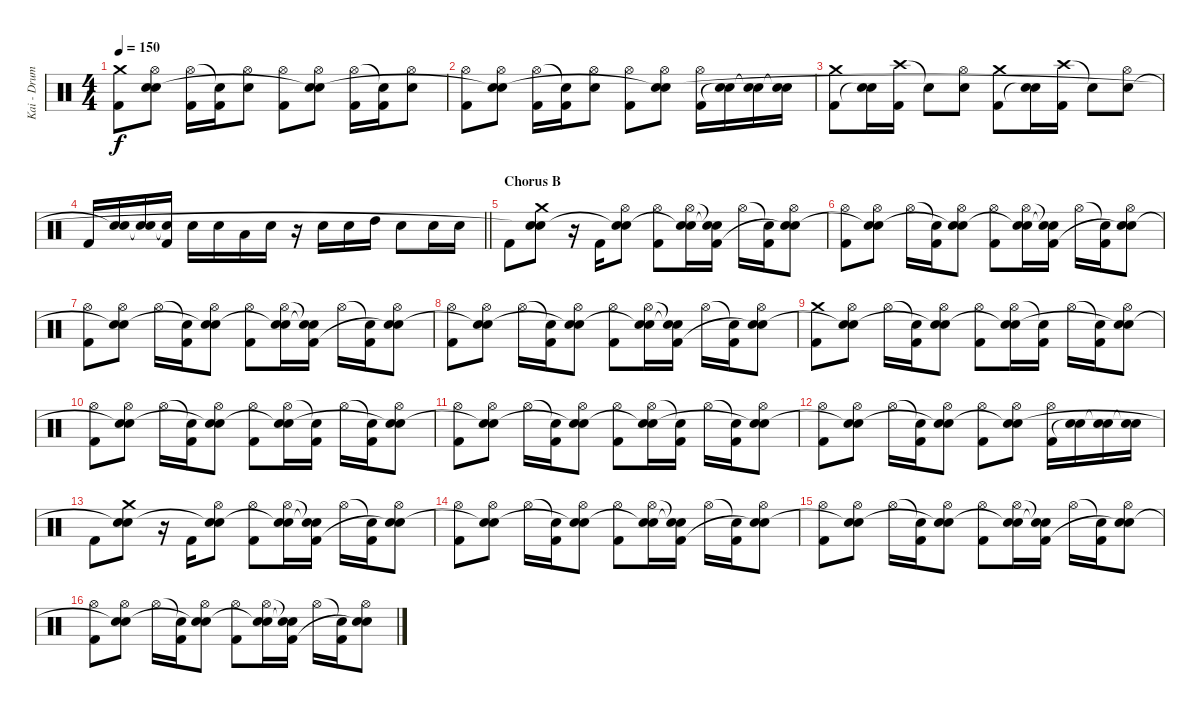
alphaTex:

\track ("Kai - Drums" "Kai - Drum") {instrument percussion}
\staff {score}
\articulation defaults
\ts (4 4)
\tempo 150
\clef neutral
\ks c
("Crash medium (hit)" "Kick (hit) 2").8{dy f} ("Hi-Hat (open)" "Snare (hit) 2" "Snare (hit)"{t}).8 ("Hi-Hat (open)" "Kick (hit) 2").16 ("Snare (hit)"{t} "Kick (hit) 2").16 ("Hi-Hat (open)" "Snare (hit) 2").8 ("Hi-Hat (open)" "Kick (hit) 2").8 ("Hi-Hat (open)" "Snare (hit) 2" "Snare (hit)"{t}).8 ("Hi-Hat (open)" "Kick (hit) 2").16 ("Snare (hit)"{t} "Kick (hit) 2").16 ("Hi-Hat (open)" "Snare (hit) 2").8 |
("Hi-Hat (open)" "Kick (hit) 2").8 ("Hi-Hat (open)" "Snare (hit) 2" "Snare (hit)"{t}).8 ("Hi-Hat (open)" "Kick (hit) 2").16 ("Snare (hit)"{t} "Kick (hit) 2").16 ("Hi-Hat (open)" "Snare (hit) 2").8 ("Hi-Hat (open)" "Kick (hit) 2").8 ("Hi-Hat (open)" "Snare (hit) 2" "Snare (hit)"{t}).8 ("Hi-Hat (open)" "Kick (hit) 2").16 ("Snare (hit) 2" "Snare (hit)"{t}).16 ("Snare (hit) 2" "Snare (hit)"{t}).16 ("Snare (hit) 2" "Snare (hit)"{t}).16 |
("Crash medium (hit)" "Kick (hit) 2").8 ("Snare (hit) 2" "Snare (hit)"{t}).16 ("Crash high (hit)" "Kick (hit) 2").16 "Snare (hit)"{t}.8 ("Hi-Hat (open)" "Snare (hit) 2").8 ("Crash medium (hit)" "Kick (hit) 2").8 ("Snare (hit) 2" "Snare (hit)"{t}).16 ("Crash high (hit)" "Kick (hit) 2").16 "Snare (hit)"{t}.8 ("Hi-Hat (open)" "Snare (hit) 2").8 |
\barLineRight lightlight "Kick (hit) 2".16
("Snare (hit) 2" "Snare (hit)"{t}).16 ("Snare (hit) 2" "Snare (hit)"{t}).16 ("Snare (hit)"{t} "Kick (hit) 2").16 "Snare (hit) 2".16 "Snare (hit) 2".16 "Low Tom (hit)".16 "Snare (hit) 2".16 r.16 "Snare (hit) 2".16 "Snare (hit) 2".16 "High Tom (hit)".16 "Snare (hit) 2".8 "Snare (hit) 2".16 "Snare (hit) 2".16 |
\section ("" "Chorus B")
"Kick (hit) 2".8 ("Crash medium (hit)" "Snare (hit) 2" "Snare (hit)"{t}).8 r.16 "Kick (hit) 2".16 ("Hi-Hat (open)" "Snare (hit) 2" "Snare (hit)"{t}).8 ("Hi-Hat (open)" "Kick (hit) 2").8 ("Hi-Hat (open)" "Snare (hit) 2" "Snare (hit)"{t}).16 ("Snare (hit)"{t} "Snare (hit)"{t} "Kick (hit) 2").16 "Hi-Hat (open)".16 ("Snare (hit)"{t} "Kick (hit) 2").16 ("Hi-Hat (open)" "Snare (hit) 2" "Snare (hit)"{t}).8 |
("Hi-Hat (open)" "Kick (hit) 2").8 ("Hi-Hat (open)" "Snare (hit) 2" "Snare (hit)"{t}).8 "Hi-Hat (open)".16 ("Snare (hit)"{t} "Kick (hit) 2").16 ("Hi-Hat (open)" "Snare (hit) 2" "Snare (hit)"{t}).8 ("Hi-Hat (open)" "Kick (hit) 2").8 ("Hi-Hat (open)" "Snare (hit) 2" "Snare (hit)"{t}).16 ("Snare (hit)"{t} "Snare (hit)"{t} "Kick (hit) 2").16 "Hi-Hat (open)".16 ("Snare (hit)"{t} "Kick (hit) 2").16 ("Hi-Hat (open)" "Snare (hit) 2" "Snare (hit)"{t}).8 |
("Hi-Hat (open)" "Kick (hit) 2").8 ("Hi-Hat (open)" "Snare (hit) 2" "Snare (hit)"{t}).8 "Hi-Hat (open)".16 ("Snare (hit)"{t} "Kick (hit) 2").16 ("Hi-Hat (open)" "Snare (hit) 2" "Snare (hit)"{t}).8 ("Hi-Hat (open)" "Kick (hit) 2").8 ("Hi-Hat (open)" "Snare (hit) 2" "Snare (hit)"{t}).16 ("Snare (hit)"{t} "Snare (hit)"{t} "Kick (hit) 2").16 "Hi-Hat (open)".16 ("Snare (hit)"{t} "Kick (hit) 2").16 ("Hi-Hat (open)" "Snare (hit) 2" "Snare (hit)"{t}).8 |
("Hi-Hat (open)" "Kick (hit) 2").8 ("Hi-Hat (open)" "Snare (hit) 2" "Snare (hit)"{t}).8 "Hi-Hat (open)".16 ("Snare (hit)"{t} "Kick (hit) 2").16 ("Hi-Hat (open)" "Snare (hit) 2" "Snare (hit)"{t}).8 ("Hi-Hat (open)" "Kick (hit) 2").8 ("Hi-Hat (open)" "Snare (hit) 2" "Snare (hit)"{t}).16 ("Snare (hit)"{t} "Snare (hit)"{t} "Kick (hit) 2").16 "Hi-Hat (open)".16 ("Snare (hit)"{t} "Kick (hit) 2").16 ("Hi-Hat (open)" "Snare (hit) 2" "Snare (hit)"{t}).8 |
("Crash medium (hit)" "Kick (hit) 2").8 ("Hi-Hat (open)" "Snare (hit) 2" "Snare (hit)"{t}).8 "Hi-Hat (open)".16 ("Snare (hit)"{t} "Kick (hit) 2").16 ("Hi-Hat (open)" "Snare (hit) 2" "Snare (hit)"{t}).8 ("Hi-Hat (open)" "Kick (hit) 2").8 ("Hi-Hat (open)" "Snare (hit) 2" "Snare (hit)"{t}).16 ("Snare (hit)"{t} "Kick (hit) 2").16 "Hi-Hat (open)".16 ("Snare (hit)"{t} "Kick (hit) 2").16 ("Hi-Hat (open)" "Snare (hit) 2" "Snare (hit)"{t}).8 |
("Hi-Hat (open)" "Kick (hit) 2").8 ("Hi-Hat (open)" "Snare (hit) 2" "Snare (hit)"{t}).8 "Hi-Hat (open)".16 ("Snare (hit)"{t} "Kick (hit) 2").16 ("Hi-Hat (open)" "Snare (hit) 2" "Snare (hit)"{t}).8 ("Hi-Hat (open)" "Kick (hit) 2").8 ("Hi-Hat (open)" "Snare (hit) 2" "Snare (hit)"{t}).16 ("Snare (hit)"{t} "Kick (hit) 2").16 "Hi-Hat (open)".16 ("Snare (hit)"{t} "Kick (hit) 2").16 ("Hi-Hat (open)" "Snare (hit) 2" "Snare (hit)"{t}).8 |
("Hi-Hat (open)" "Kick (hit) 2").8 ("Hi-Hat (open)" "Snare (hit) 2" "Snare (hit)"{t}).8 "Hi-Hat (open)".16 ("Snare (hit)"{t} "Kick (hit) 2").16 ("Hi-Hat (open)" "Snare (hit) 2" "Snare (hit)"{t}).8 ("Hi-Hat (open)" "Kick (hit) 2").8 ("Hi-Hat (open)" "Snare (hit) 2" "Snare (hit)"{t}).16 ("Snare (hit)"{t} "Kick (hit) 2").16 "Hi-Hat (open)".16 ("Snare (hit)"{t} "Kick (hit) 2").16 ("Hi-Hat (open)" "Snare (hit) 2" "Snare (hit)"{t}).8 |
("Hi-Hat (open)" "Kick (hit) 2").8 ("Hi-Hat (open)" "Snare (hit) 2" "Snare (hit)"{t}).8 "Hi-Hat (open)".16 ("Snare (hit)"{t} "Kick (hit) 2").16 ("Hi-Hat (open)" "Snare (hit) 2" "Snare (hit)"{t}).8 ("Hi-Hat (open)" "Kick (hit) 2").8 ("Hi-Hat (open)" "Snare (hit) 2" "Snare (hit)"{t}).8 ("Hi-Hat (open)" "Kick (hit) 2").16 ("Snare (hit) 2" "Snare (hit)"{t}).16 ("Snare (hit) 2" "Snare (hit)"{t}).16 ("Snare (hit) 2" "Snare (hit)"{t}).16 |
"Kick (hit) 2".8 ("Crash medium (hit)" "Snare (hit) 2" "Snare (hit)"{t}).8 r.16 "Kick (hit) 2".16 ("Hi-Hat (open)" "Snare (hit) 2" "Snare (hit)"{t}).8 ("Hi-Hat (open)" "Kick (hit) 2").8 ("Hi-Hat (open)" "Snare (hit) 2" "Snare (hit)"{t}).16 ("Snare (hit)"{t} "Snare (hit)"{t} "Kick (hit) 2").16 "Hi-Hat (open)".16 ("Snare (hit)"{t} "Kick (hit) 2").16 ("Hi-Hat (open)" "Snare (hit) 2" "Snare (hit)"{t}).8 |
("Hi-Hat (open)" "Kick (hit) 2").8 ("Hi-Hat (open)" "Snare (hit) 2" "Snare (hit)"{t}).8 "Hi-Hat (open)".16 ("Snare (hit)"{t} "Kick (hit) 2").16 ("Hi-Hat (open)" "Snare (hit) 2" "Snare (hit)"{t}).8 ("Hi-Hat (open)" "Kick (hit) 2").8 ("Hi-Hat (open)" "Snare (hit) 2" "Snare (hit)"{t}).16 ("Snare (hit)"{t} "Snare (hit)"{t} "Kick (hit) 2").16 "Hi-Hat (open)".16 ("Snare (hit)"{t} "Kick (hit) 2").16 ("Hi-Hat (open)" "Snare (hit) 2" "Snare (hit)"{t}).8 |
("Hi-Hat (open)" "Kick (hit) 2").8 ("Hi-Hat (open)" "Snare (hit) 2" "Snare (hit)"{t}).8 "Hi-Hat (open)".16 ("Snare (hit)"{t} "Kick (hit) 2").16 ("Hi-Hat (open)" "Snare (hit) 2" "Snare (hit)"{t}).8 ("Hi-Hat (open)" "Kick (hit) 2").8 ("Hi-Hat (open)" "Snare (hit) 2" "Snare (hit)"{t}).16 ("Snare (hit)"{t} "Snare (hit)"{t} "Kick (hit) 2").16 "Hi-Hat (open)".16 ("Snare (hit)"{t} "Kick (hit) 2").16 ("Hi-Hat (open)" "Snare (hit) 2" "Snare (hit)"{t}).8 |
("Hi-Hat (open)" "Kick (hit) 2").8 ("Hi-Hat (open)" "Snare (hit) 2" "Snare (hit)"{t}).8 "Hi-Hat (open)".16 ("Snare (hit)"{t} "Kick (hit) 2").16 ("Hi-Hat (open)" "Snare (hit) 2" "Snare (hit)"{t}).8 ("Hi-Hat (open)" "Kick (hit) 2").8 ("Hi-Hat (open)" "Snare (hit) 2" "Snare (hit)"{t}).16 ("Snare (hit)"{t} "Snare (hit)"{t} "Kick (hit) 2").16 "Hi-Hat (open)".16 ("Snare (hit)"{t} "Kick (hit) 2").16 ("Hi-Hat (open)" "Snare (hit) 2" "Snare (hit)"{t}).8
